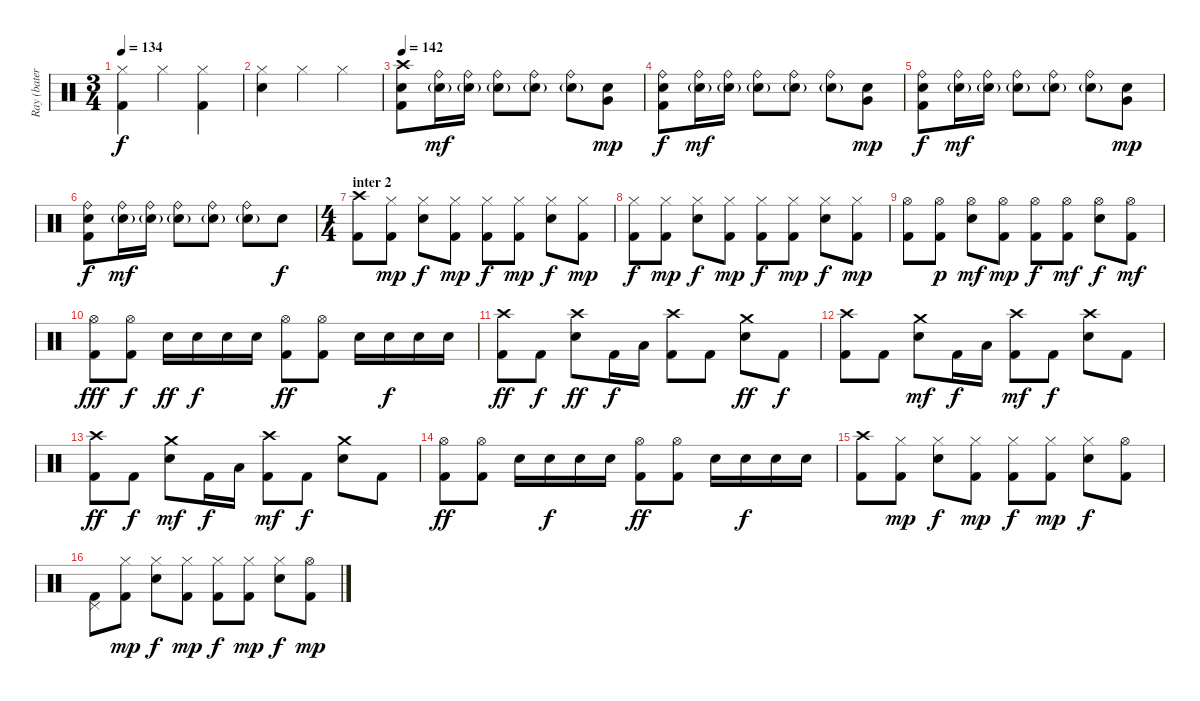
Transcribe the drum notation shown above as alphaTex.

\track ("Ray (batería)" "Ray (bater") {instrument percussion}
\staff {score}
\articulation defaults
\ts (3 4)
\tempo 134
\clef neutral
\ks c
("Hi-Hat (closed)" "Kick (hit) 2").4{dy f} "Hi-Hat (closed)".4 ("Hi-Hat (closed)" "Kick (hit) 2").4 |
("Hi-Hat (closed)" "Snare (hit) 2").4 "Hi-Hat (closed)".4 "Hi-Hat (closed)".4 |
\section ("" "")
\tempo 142
("Crash high (hit)" "Snare (hit) 2" "Kick (hit) 2").8 ("Ride (bell)" "Snare (hit) 2"{g}).16{dy mf} ("Ride (bell)" "Snare (hit) 2"{g}).16 ("Ride (bell)" "Snare (hit) 2"{g}).8 ("Ride (bell)" "Snare (hit) 2"{g}).8 ("Ride (bell)" "Snare (hit) 2"{g}).8 ("Snare (hit) 2" "Very Low Tom (hit)").8{dy mp} |
("Ride (bell)" "Snare (hit) 2" "Kick (hit) 2").8{dy f} ("Ride (bell)" "Snare (hit) 2"{g}).16{dy mf} ("Ride (bell)" "Snare (hit) 2"{g}).16 ("Ride (bell)" "Snare (hit) 2"{g}).8 ("Ride (bell)" "Snare (hit) 2"{g}).8 ("Ride (bell)" "Snare (hit) 2"{g}).8 ("Snare (hit) 2" "Very Low Tom (hit)").8{dy mp} |
("Ride (bell)" "Snare (hit) 2" "Kick (hit) 2").8{dy f} ("Ride (bell)" "Snare (hit) 2"{g}).16{dy mf} ("Ride (bell)" "Snare (hit) 2"{g}).16 ("Ride (bell)" "Snare (hit) 2"{g}).8 ("Ride (bell)" "Snare (hit) 2"{g}).8 ("Ride (bell)" "Snare (hit) 2"{g}).8 ("Snare (hit) 2" "Very Low Tom (hit)").8{dy mp} |
("Ride (bell)" "Snare (hit) 2" "Kick (hit) 2").8{dy f} ("Ride (bell)" "Snare (hit) 2"{g}).16{dy mf} ("Ride (bell)" "Snare (hit) 2"{g}).16 ("Ride (bell)" "Snare (hit) 2"{g}).8 ("Ride (bell)" "Snare (hit) 2"{g}).8 ("Ride (bell)" "Snare (hit) 2"{g}).8 "Snare (hit) 2".8{dy f} |
\ts (4 4)
\section ("" "inter 2")
("Crash high (hit)" "Kick (hit) 2").8 ("Hi-Hat (closed)" "Kick (hit) 2").8{dy mp} ("Hi-Hat (closed)" "Snare (hit) 2").8{dy f} ("Hi-Hat (closed)" "Kick (hit) 2").8{dy mp} ("Hi-Hat (closed)" "Kick (hit) 2").8{dy f} ("Hi-Hat (closed)" "Kick (hit) 2").8{dy mp} ("Hi-Hat (closed)" "Snare (hit) 2").8{dy f} ("Hi-Hat (closed)" "Kick (hit) 2").8{dy mp} |
("Hi-Hat (closed)" "Kick (hit) 2").8{dy f} ("Hi-Hat (closed)" "Kick (hit) 2").8{dy mp} ("Hi-Hat (closed)" "Snare (hit) 2").8{dy f} ("Hi-Hat (closed)" "Kick (hit) 2").8{dy mp} ("Hi-Hat (closed)" "Kick (hit) 2").8{dy f} ("Hi-Hat (closed)" "Kick (hit) 2").8{dy mp} ("Hi-Hat (closed)" "Snare (hit) 2").8{dy f} ("Hi-Hat (closed)" "Kick (hit) 2").8{dy mp} |
("Hi-Hat (open)" "Kick (hit) 2").8 ("Hi-Hat (open)" "Kick (hit) 2").8{dy p} ("Hi-Hat (open)" "Snare (hit) 2").8{dy mf} ("Hi-Hat (open)" "Kick (hit) 2").8{dy mp} ("Hi-Hat (open)" "Kick (hit) 2").8{dy f} ("Hi-Hat (open)" "Kick (hit) 2").8{dy mf} ("Hi-Hat (open)" "Snare (hit) 2").8{dy f} ("Hi-Hat (open)" "Kick (hit) 2").8{dy mf} |
("Hi-Hat (open)" "Kick (hit) 2").8{dy fff} ("Hi-Hat (open)" "Kick (hit) 2").8{dy f} "Snare (hit) 2".16{dy ff} "Snare (hit) 2".16{dy f} "Snare (hit) 2".16 "Snare (hit) 2".16 ("Hi-Hat (open)" "Kick (hit) 2").8{dy ff} ("Hi-Hat (open)" "Kick (hit) 2").8 "Snare (hit) 2".16 "Snare (hit) 2".16{dy f} "Snare (hit) 2".16 "Snare (hit) 2".16 |
("Crash high (hit)" "Kick (hit) 2").8{dy ff} "Kick (hit) 2".8{dy f} ("Crash high (hit)" "Snare (hit) 2").8{dy ff} "Kick (hit) 2".16{dy f} "Low Tom (hit)".16 ("Crash high (hit)" "Kick (hit) 2").8 "Kick (hit) 2".8 ("Crash medium (hit)" "Snare (hit) 2").8{dy ff} "Kick (hit) 2".8{dy f} |
("Crash high (hit)" "Kick (hit) 2").8 "Kick (hit) 2".8 ("Crash medium (hit)" "Snare (hit) 2").8{dy mf} "Kick (hit) 2".16{dy f} "Low Tom (hit)".16 ("Crash high (hit)" "Kick (hit) 2").8{dy mf} "Kick (hit) 2".8{dy f} ("Crash high (hit)" "Snare (hit) 2").8 "Kick (hit) 2".8 |
("Crash high (hit)" "Kick (hit) 2").8{dy ff} "Kick (hit) 2".8{dy f} ("Crash medium (hit)" "Snare (hit) 2").8{dy mf} "Kick (hit) 2".16{dy f} "Low Tom (hit)".16 ("Crash high (hit)" "Kick (hit) 2").8{dy mf} "Kick (hit) 2".8{dy f} ("Crash medium (hit)" "Snare (hit) 2").8 "Kick (hit) 2".8 |
("Hi-Hat (open)" "Kick (hit) 2").8{dy ff} ("Hi-Hat (open)" "Kick (hit) 2").8 "Snare (hit) 2".16 "Snare (hit) 2".16{dy f} "Snare (hit) 2".16 "Snare (hit) 2".16 ("Hi-Hat (open)" "Kick (hit) 2").8{dy ff} ("Hi-Hat (open)" "Kick (hit) 2").8 "Snare (hit) 2".16 "Snare (hit) 2".16{dy f} "Snare (hit) 2".16 "Snare (hit) 2".16 |
("Crash high (hit)" "Kick (hit) 2").8 ("Hi-Hat (closed)" "Kick (hit) 2").8{dy mp} ("Hi-Hat (closed)" "Snare (hit) 2").8{dy f} ("Hi-Hat (closed)" "Kick (hit) 2").8{dy mp} ("Hi-Hat (closed)" "Kick (hit) 2").8{dy f} ("Hi-Hat (closed)" "Kick (hit) 2").8{dy mp} ("Hi-Hat (closed)" "Snare (hit) 2").8{dy f} ("Hi-Hat (open)" "Kick (hit) 2").8 |
("Pedal Hi-Hat (hit)" "Kick (hit) 2").8 ("Hi-Hat (closed)" "Kick (hit) 2").8{dy mp} ("Hi-Hat (closed)" "Snare (hit) 2").8{dy f} ("Hi-Hat (closed)" "Kick (hit) 2").8{dy mp} ("Hi-Hat (closed)" "Kick (hit) 2").8{dy f} ("Hi-Hat (closed)" "Kick (hit) 2").8{dy mp} ("Hi-Hat (closed)" "Snare (hit) 2").8{dy f} ("Hi-Hat (open)" "Kick (hit) 2").8{dy mp}
